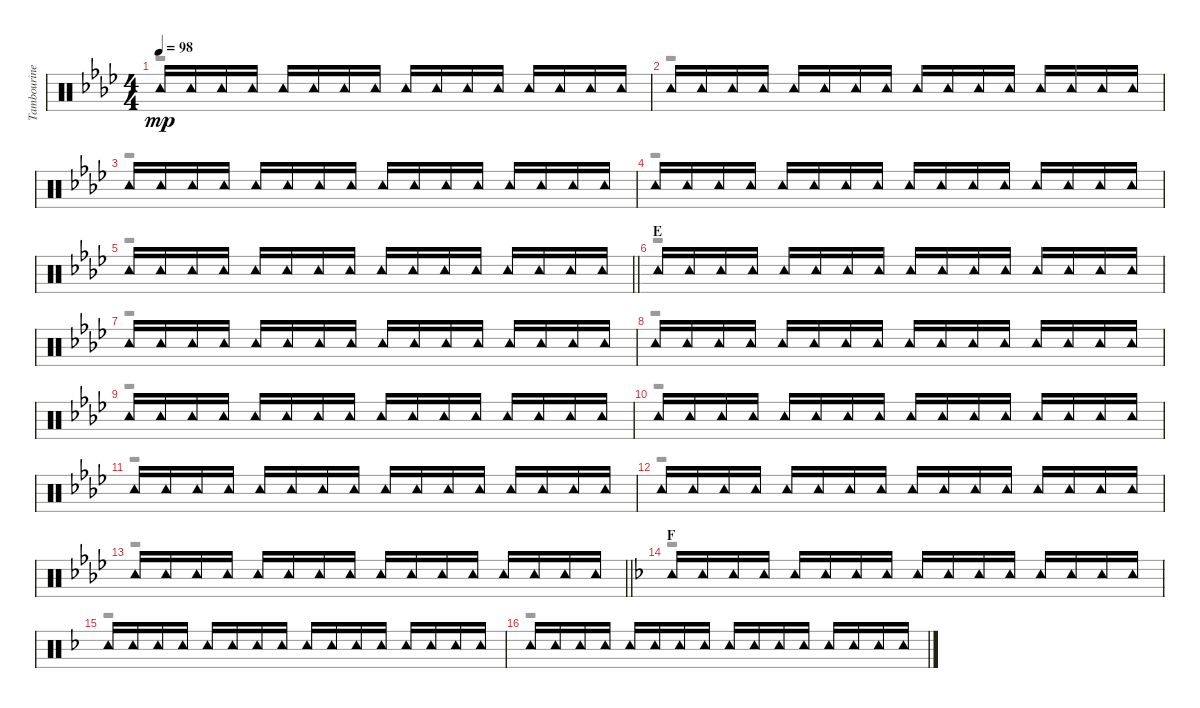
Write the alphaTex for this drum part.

\track ("Tambourine" "Tambourine") {instrument percussion}
\staff {score}
\articulation defaults
\voice
\ts (4 4)
\tempo 98
\clef neutral
\ks ab "Tambourine (hit)".16{dy mp} "Tambourine (hit)".16 "Tambourine (hit)".16 "Tambourine (hit)".16 "Tambourine (hit)".16 "Tambourine (hit)".16 "Tambourine (hit)".16 "Tambourine (hit)".16 "Tambourine (hit)".16 "Tambourine (hit)".16 "Tambourine (hit)".16 "Tambourine (hit)".16 "Tambourine (hit)".16 "Tambourine (hit)".16 "Tambourine (hit)".16 "Tambourine (hit)".16
|
"Tambourine (hit)".16 "Tambourine (hit)".16 "Tambourine (hit)".16 "Tambourine (hit)".16 "Tambourine (hit)".16 "Tambourine (hit)".16 "Tambourine (hit)".16 "Tambourine (hit)".16 "Tambourine (hit)".16 "Tambourine (hit)".16 "Tambourine (hit)".16 "Tambourine (hit)".16 "Tambourine (hit)".16 "Tambourine (hit)".16 "Tambourine (hit)".16 "Tambourine (hit)".16 |
"Tambourine (hit)".16 "Tambourine (hit)".16 "Tambourine (hit)".16 "Tambourine (hit)".16 "Tambourine (hit)".16 "Tambourine (hit)".16 "Tambourine (hit)".16 "Tambourine (hit)".16 "Tambourine (hit)".16 "Tambourine (hit)".16 "Tambourine (hit)".16 "Tambourine (hit)".16 "Tambourine (hit)".16 "Tambourine (hit)".16 "Tambourine (hit)".16 "Tambourine (hit)".16 |
"Tambourine (hit)".16 "Tambourine (hit)".16 "Tambourine (hit)".16 "Tambourine (hit)".16 "Tambourine (hit)".16 "Tambourine (hit)".16 "Tambourine (hit)".16 "Tambourine (hit)".16 "Tambourine (hit)".16 "Tambourine (hit)".16 "Tambourine (hit)".16 "Tambourine (hit)".16 "Tambourine (hit)".16 "Tambourine (hit)".16 "Tambourine (hit)".16 "Tambourine (hit)".16 |
\barLineRight lightlight "Tambourine (hit)".16 "Tambourine (hit)".16 "Tambourine (hit)".16 "Tambourine (hit)".16 "Tambourine (hit)".16 "Tambourine (hit)".16 "Tambourine (hit)".16 "Tambourine (hit)".16 "Tambourine (hit)".16 "Tambourine (hit)".16 "Tambourine (hit)".16 "Tambourine (hit)".16 "Tambourine (hit)".16 "Tambourine (hit)".16 "Tambourine (hit)".16 "Tambourine (hit)".16
|
\section ("" "E")
"Tambourine (hit)".16 "Tambourine (hit)".16 "Tambourine (hit)".16 "Tambourine (hit)".16 "Tambourine (hit)".16 "Tambourine (hit)".16 "Tambourine (hit)".16 "Tambourine (hit)".16 "Tambourine (hit)".16 "Tambourine (hit)".16 "Tambourine (hit)".16 "Tambourine (hit)".16 "Tambourine (hit)".16 "Tambourine (hit)".16 "Tambourine (hit)".16 "Tambourine (hit)".16 |
"Tambourine (hit)".16 "Tambourine (hit)".16 "Tambourine (hit)".16 "Tambourine (hit)".16 "Tambourine (hit)".16 "Tambourine (hit)".16 "Tambourine (hit)".16 "Tambourine (hit)".16 "Tambourine (hit)".16 "Tambourine (hit)".16 "Tambourine (hit)".16 "Tambourine (hit)".16 "Tambourine (hit)".16 "Tambourine (hit)".16 "Tambourine (hit)".16 "Tambourine (hit)".16 |
"Tambourine (hit)".16 "Tambourine (hit)".16 "Tambourine (hit)".16 "Tambourine (hit)".16 "Tambourine (hit)".16 "Tambourine (hit)".16 "Tambourine (hit)".16 "Tambourine (hit)".16 "Tambourine (hit)".16 "Tambourine (hit)".16 "Tambourine (hit)".16 "Tambourine (hit)".16 "Tambourine (hit)".16 "Tambourine (hit)".16 "Tambourine (hit)".16 "Tambourine (hit)".16 |
"Tambourine (hit)".16 "Tambourine (hit)".16 "Tambourine (hit)".16 "Tambourine (hit)".16 "Tambourine (hit)".16 "Tambourine (hit)".16 "Tambourine (hit)".16 "Tambourine (hit)".16 "Tambourine (hit)".16 "Tambourine (hit)".16 "Tambourine (hit)".16 "Tambourine (hit)".16 "Tambourine (hit)".16 "Tambourine (hit)".16 "Tambourine (hit)".16 "Tambourine (hit)".16 |
"Tambourine (hit)".16 "Tambourine (hit)".16 "Tambourine (hit)".16 "Tambourine (hit)".16 "Tambourine (hit)".16 "Tambourine (hit)".16 "Tambourine (hit)".16 "Tambourine (hit)".16 "Tambourine (hit)".16 "Tambourine (hit)".16 "Tambourine (hit)".16 "Tambourine (hit)".16 "Tambourine (hit)".16 "Tambourine (hit)".16 "Tambourine (hit)".16 "Tambourine (hit)".16 |
"Tambourine (hit)".16 "Tambourine (hit)".16 "Tambourine (hit)".16 "Tambourine (hit)".16 "Tambourine (hit)".16 "Tambourine (hit)".16 "Tambourine (hit)".16 "Tambourine (hit)".16 "Tambourine (hit)".16 "Tambourine (hit)".16 "Tambourine (hit)".16 "Tambourine (hit)".16 "Tambourine (hit)".16 "Tambourine (hit)".16 "Tambourine (hit)".16 "Tambourine (hit)".16 |
"Tambourine (hit)".16 "Tambourine (hit)".16 "Tambourine (hit)".16 "Tambourine (hit)".16 "Tambourine (hit)".16 "Tambourine (hit)".16 "Tambourine (hit)".16 "Tambourine (hit)".16 "Tambourine (hit)".16 "Tambourine (hit)".16 "Tambourine (hit)".16 "Tambourine (hit)".16 "Tambourine (hit)".16 "Tambourine (hit)".16 "Tambourine (hit)".16 "Tambourine (hit)".16 |
\barLineRight lightlight "Tambourine (hit)".16 "Tambourine (hit)".16 "Tambourine (hit)".16 "Tambourine (hit)".16 "Tambourine (hit)".16 "Tambourine (hit)".16 "Tambourine (hit)".16 "Tambourine (hit)".16 "Tambourine (hit)".16 "Tambourine (hit)".16 "Tambourine (hit)".16 "Tambourine (hit)".16 "Tambourine (hit)".16 "Tambourine (hit)".16 "Tambourine (hit)".16 "Tambourine (hit)".16
|
\section ("" "F")
\ks f "Tambourine (hit)".16 "Tambourine (hit)".16 "Tambourine (hit)".16 "Tambourine (hit)".16 "Tambourine (hit)".16 "Tambourine (hit)".16 "Tambourine (hit)".16 "Tambourine (hit)".16 "Tambourine (hit)".16 "Tambourine (hit)".16 "Tambourine (hit)".16 "Tambourine (hit)".16 "Tambourine (hit)".16 "Tambourine (hit)".16 "Tambourine (hit)".16 "Tambourine (hit)".16
|
"Tambourine (hit)".16 "Tambourine (hit)".16 "Tambourine (hit)".16 "Tambourine (hit)".16 "Tambourine (hit)".16 "Tambourine (hit)".16 "Tambourine (hit)".16 "Tambourine (hit)".16 "Tambourine (hit)".16 "Tambourine (hit)".16 "Tambourine (hit)".16 "Tambourine (hit)".16 "Tambourine (hit)".16 "Tambourine (hit)".16 "Tambourine (hit)".16 "Tambourine (hit)".16 |
"Tambourine (hit)".16 "Tambourine (hit)".16 "Tambourine (hit)".16 "Tambourine (hit)".16 "Tambourine (hit)".16 "Tambourine (hit)".16 "Tambourine (hit)".16 "Tambourine (hit)".16 "Tambourine (hit)".16 "Tambourine (hit)".16 "Tambourine (hit)".16 "Tambourine (hit)".16 "Tambourine (hit)".16 "Tambourine (hit)".16 "Tambourine (hit)".16 "Tambourine (hit)".16
\voice
\clef neutral
\ottava regular
\simile none
\ks ab
r.1{dy f} |
r.1 |
r.1 |
r.1 |
\barLineRight lightlight
r.1 |
r.1 |
r.1 |
r.1 |
r.1 |
r.1 |
r.1 |
r.1 |
\barLineRight lightlight
r.1 |
\ks f
r.1 |
r.1 |
r.1
